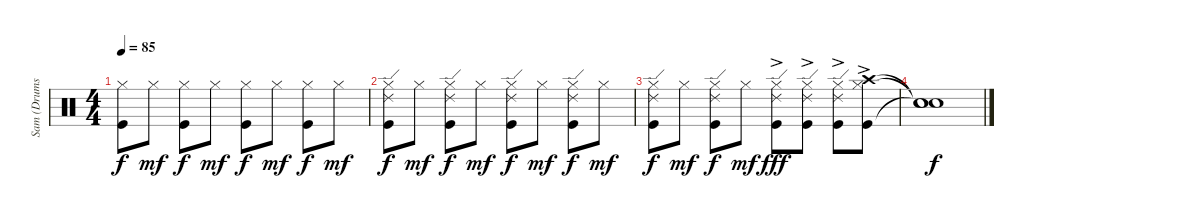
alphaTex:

\track ("Sam (Drums)" "Sam (Drums") {instrument percussion}
\staff {score}
\articulation defaults
\ts (4 4)
\tempo 85
\clef neutral
\ks c
("Hi-Hat (closed)" "Kick (hit)").8{dy f} "Hi-Hat (closed)".8{dy mf} ("Hi-Hat (closed)" "Kick (hit)").8{dy f} "Hi-Hat (closed)".8{dy mf} ("Hi-Hat (closed)" "Kick (hit)").8{dy f} "Hi-Hat (closed)".8{dy mf} ("Hi-Hat (closed)" "Kick (hit)").8{dy f} "Hi-Hat (closed)".8{dy mf} |
("Ride (edge) 2" "Hi-Hat (closed)" "Kick (hit)").8{dy f} "Hi-Hat (closed)".8{dy mf} ("Ride (edge) 2" "Hi-Hat (closed)" "Kick (hit)").8{dy f} "Hi-Hat (closed)".8{dy mf} ("Ride (edge) 2" "Hi-Hat (closed)" "Kick (hit)").8{dy f} "Hi-Hat (closed)".8{dy mf} ("Ride (edge) 2" "Hi-Hat (closed)" "Kick (hit)").8{dy f} "Hi-Hat (closed)".8{dy mf} |
("Ride (edge) 2" "Hi-Hat (closed)" "Kick (hit)").8{dy f} "Hi-Hat (closed)".8{dy mf} ("Ride (edge) 2" "Hi-Hat (closed)" "Kick (hit)").8{dy f} "Hi-Hat (closed)".8{dy mf} ("Ride (edge) 2" "Hi-Hat (closed)" "Kick (hit)"{ac}).8{dy fff} ("Ride (edge) 2" "Hi-Hat (closed)" "Kick (hit)"{ac}).8 ("Ride (edge) 2" "Hi-Hat (closed)" "Kick (hit)"{ac}).8 ("Crash high (hit)" "Hi-Hat (closed)" "Kick (hit)"{ac}).8 |
("Snare (hit)"{t} "Snare (hit)"{t} "Snare (hit)"{t}).1{dy f}
